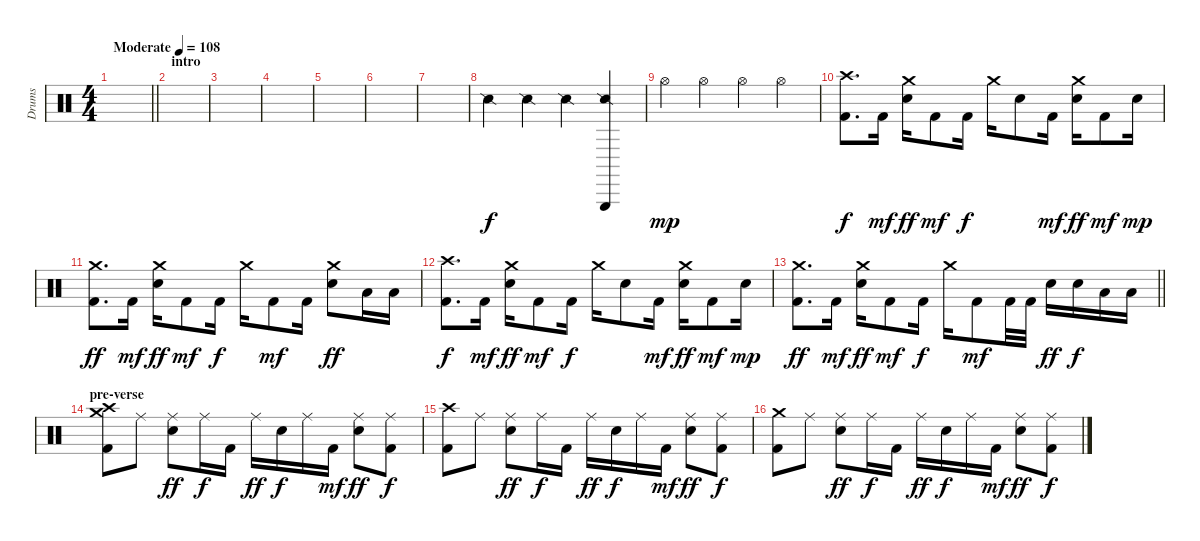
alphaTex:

\track ("Drums" "Drums") {instrument percussion}
\staff {score}
\articulation defaults
\ts (4 4)
\tempo (108 "Moderate")
\clef neutral
\barLineRight lightlight
\ks c
|
\section ("" "intro")
|
|
|
|
|
|
"Snare (side stick) 2".4 "Snare (side stick) 2".4 "Snare (side stick) 2".4 ("Triangle (hit)" "Snare (side stick) 2").4 |
"Hi-Hat (open)".4{dy mp} "Hi-Hat (open)".4 "Hi-Hat (open)".4 "Hi-Hat (open)".4 |
("Crash high (hit)" "Kick (hit) 2").8{d dy f} "Kick (hit) 2".16{dy mf} ("Crash medium (hit)" "Electric Snare (hit)").16{dy ff} "Kick (hit) 2".8{dy mf} "Kick (hit) 2".16{dy f} "Crash medium (hit)".16 "Electric Snare (hit)".8 "Kick (hit) 2".16{dy mf} ("Crash medium (hit)" "Electric Snare (hit)").16{dy ff} "Kick (hit) 2".8{dy mf} "Electric Snare (hit)".16{dy mp} |
("Crash medium (hit)" "Kick (hit) 2").8{d dy ff} "Kick (hit) 2".16{dy mf} ("Crash medium (hit)" "Electric Snare (hit)").16{dy ff} "Kick (hit) 2".8{dy mf} "Kick (hit) 2".16{dy f} "Crash medium (hit)".16 "Kick (hit) 2".8{dy mf} "Kick (hit) 2".16 ("Crash medium (hit)" "Electric Snare (hit)").8{dy ff} "Low Tom (hit)".16 "Low Tom (hit)".16 |
("Crash high (hit)" "Kick (hit) 2").8{d dy f} "Kick (hit) 2".16{dy mf} ("Crash medium (hit)" "Electric Snare (hit)").16{dy ff} "Kick (hit) 2".8{dy mf} "Kick (hit) 2".16{dy f} "Crash medium (hit)".16 "Electric Snare (hit)".8 "Kick (hit) 2".16{dy mf} ("Crash medium (hit)" "Electric Snare (hit)").16{dy ff} "Kick (hit) 2".8{dy mf} "Electric Snare (hit)".16{dy mp} |
\barLineRight lightlight
("Crash medium (hit)" "Kick (hit) 2").8{d dy ff} "Kick (hit) 2".16{dy mf} ("Crash medium (hit)" "Electric Snare (hit)").16{dy ff} "Kick (hit) 2".8{dy mf} "Kick (hit) 2".16{dy f} "Crash medium (hit)".16 "Kick (hit) 2".8{dy mf} "Kick (hit) 2".32 "Kick (hit) 2".32 "Electric Snare (hit)".16{dy ff} "Electric Snare (hit)".16{dy f} "Low Tom (hit)".16 "Low Tom (hit)".16 |
\section ("" "pre-verse")
("Crash medium (hit)" "Crash high (hit)" "Kick (hit) 2").8 "Ride (middle)".8 ("Ride (middle)" "Electric Snare (hit)").8{dy ff} "Ride (middle)".16{dy f} "Kick (hit) 2".16 "Ride (middle)".16{dy ff} "Electric Snare (hit)".16{dy f} "Ride (middle)".16 "Kick (hit) 2".16{dy mf} ("Ride (middle)" "Electric Snare (hit)").8{dy ff} ("Ride (middle)" "Kick (hit) 2").8{dy f} |
("Crash high (hit)" "Kick (hit) 2").8 "Ride (middle)".8 ("Ride (middle)" "Electric Snare (hit)").8{dy ff} "Ride (middle)".16{dy f} "Kick (hit) 2".16 "Ride (middle)".16{dy ff} "Electric Snare (hit)".16{dy f} "Ride (middle)".16 "Kick (hit) 2".16{dy mf} ("Ride (middle)" "Electric Snare (hit)").8{dy ff} ("Ride (middle)" "Kick (hit) 2").8{dy f} |
("Crash medium (hit)" "Kick (hit) 2").8 "Ride (middle)".8 ("Ride (middle)" "Electric Snare (hit)").8{dy ff} "Ride (middle)".16{dy f} "Kick (hit) 2".16 "Ride (middle)".16{dy ff} "Electric Snare (hit)".16{dy f} "Ride (middle)".16 "Kick (hit) 2".16{dy mf} ("Ride (middle)" "Electric Snare (hit)").8{dy ff} ("Ride (middle)" "Kick (hit) 2").8{dy f}
